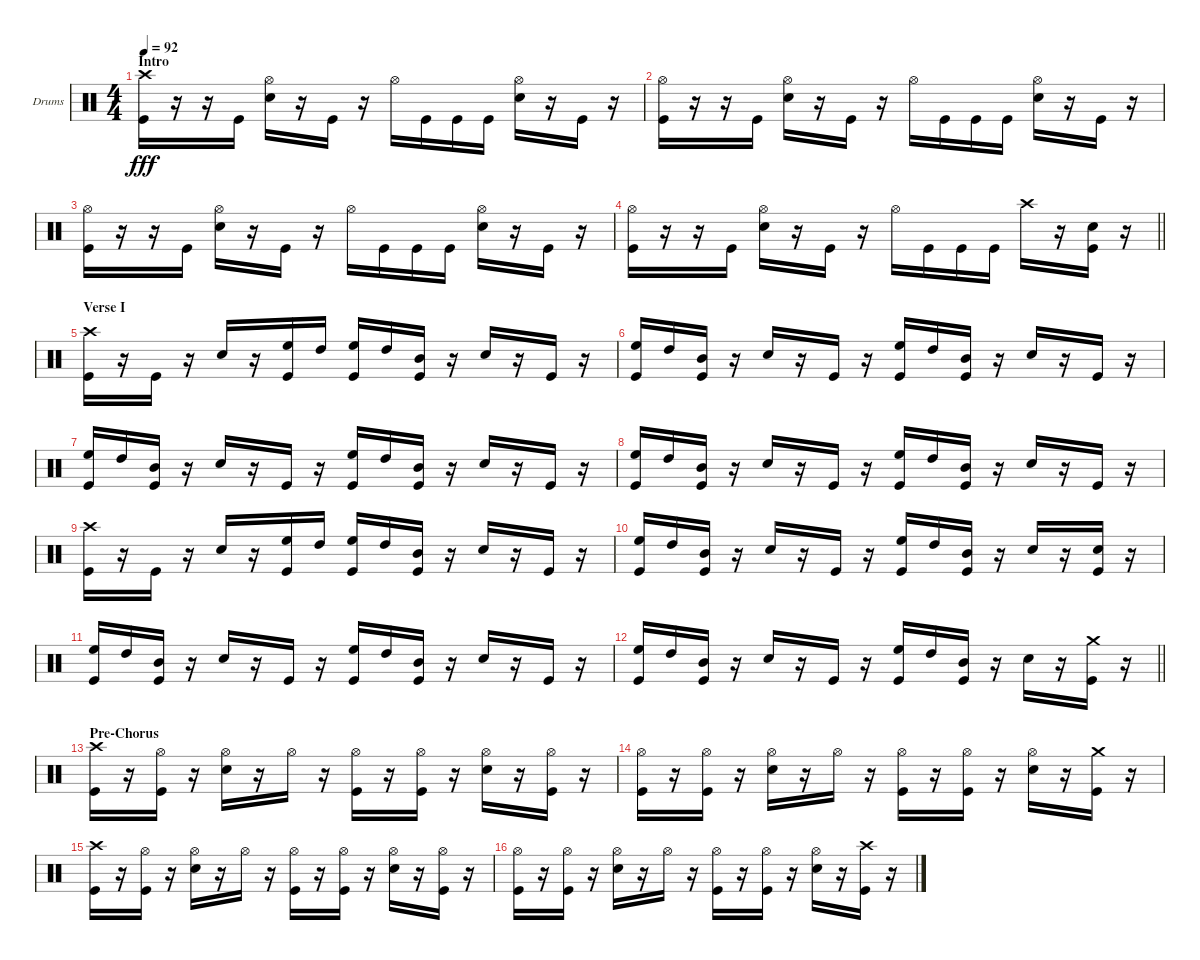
\bracketExtendMode groupsimilarinstruments
\firstSystemTrackNameOrientation horizontal
\otherSystemsTrackNameOrientation horizontal
\track ("Drums" "Drums") {instrument percussion}
\staff {score}
\articulation defaults
\ts (4 4)
\beaming (8 2 2 2 2)
\section ("" "Intro")
\tempo 92
\clef neutral
\ks c
("Crash high (hit)" "Kick (hit)").16{dy fff} r.16 r.16 "Kick (hit)".16 ("Hi-Hat (open)" "Snare (hit) 2").16 r.16 "Kick (hit)".16 r.16 "Hi-Hat (open)".16 "Kick (hit)".16 "Kick (hit)".16 "Kick (hit)".16 ("Hi-Hat (open)" "Snare (hit) 2").16 r.16 "Kick (hit)".16 r.16 |
("Hi-Hat (open)" "Kick (hit)").16 r.16 r.16 "Kick (hit)".16 ("Hi-Hat (open)" "Snare (hit) 2").16 r.16 "Kick (hit)".16 r.16 "Hi-Hat (open)".16 "Kick (hit)".16 "Kick (hit)".16 "Kick (hit)".16 ("Hi-Hat (open)" "Snare (hit) 2").16 r.16 "Kick (hit)".16 r.16 |
("Hi-Hat (open)" "Kick (hit)").16 r.16 r.16 "Kick (hit)".16 ("Hi-Hat (open)" "Snare (hit) 2").16 r.16 "Kick (hit)".16 r.16 "Hi-Hat (open)".16 "Kick (hit)".16 "Kick (hit)".16 "Kick (hit)".16 ("Hi-Hat (open)" "Snare (hit) 2").16 r.16 "Kick (hit)".16 r.16 |
\barLineRight lightlight
("Hi-Hat (open)" "Kick (hit)").16 r.16 r.16 "Kick (hit)".16 ("Hi-Hat (open)" "Snare (hit) 2").16 r.16 "Kick (hit)".16 r.16 "Hi-Hat (open)".16 "Kick (hit)".16 "Kick (hit)".16 "Kick (hit)".16 "Crash high (hit)".16 r.16 ("Snare (hit) 2" "Kick (hit)").16 r.16 |
\section ("" "Verse I")
("Crash high (hit)" "Kick (hit)").16 r.16 "Kick (hit)".16 r.16 "Snare (hit) 2".16 r.16 ("High Floor Tom (hit)" "Kick (hit)").16 "High Tom (hit)".16 ("High Floor Tom (hit)" "Kick (hit)").16 "High Tom (hit)".16 ("Mid Tom (hit)" "Kick (hit)").16 r.16 "Snare (hit) 2".16 r.16 "Kick (hit)".16 r.16 |
("High Floor Tom (hit)" "Kick (hit)").16 "High Tom (hit)".16 ("Mid Tom (hit)" "Kick (hit)").16 r.16 "Snare (hit) 2".16 r.16 "Kick (hit)".16 r.16 ("High Floor Tom (hit)" "Kick (hit)").16 "High Tom (hit)".16 ("Mid Tom (hit)" "Kick (hit)").16 r.16 "Snare (hit) 2".16 r.16 "Kick (hit)".16 r.16 |
("High Floor Tom (hit)" "Kick (hit)").16 "High Tom (hit)".16 ("Mid Tom (hit)" "Kick (hit)").16 r.16 "Snare (hit) 2".16 r.16 "Kick (hit)".16 r.16 ("High Floor Tom (hit)" "Kick (hit)").16 "High Tom (hit)".16 ("Mid Tom (hit)" "Kick (hit)").16 r.16 "Snare (hit) 2".16 r.16 "Kick (hit)".16 r.16 |
("High Floor Tom (hit)" "Kick (hit)").16 "High Tom (hit)".16 ("Mid Tom (hit)" "Kick (hit)").16 r.16 "Snare (hit) 2".16 r.16 "Kick (hit)".16 r.16 ("High Floor Tom (hit)" "Kick (hit)").16 "High Tom (hit)".16 ("Mid Tom (hit)" "Kick (hit)").16 r.16 "Snare (hit) 2".16 r.16 "Kick (hit)".16 r.16 |
("Crash high (hit)" "Kick (hit)").16 r.16 "Kick (hit)".16 r.16 "Snare (hit) 2".16 r.16 ("High Floor Tom (hit)" "Kick (hit)").16 "High Tom (hit)".16 ("High Floor Tom (hit)" "Kick (hit)").16 "High Tom (hit)".16 ("Mid Tom (hit)" "Kick (hit)").16 r.16 "Snare (hit) 2".16 r.16 "Kick (hit)".16 r.16 |
("High Floor Tom (hit)" "Kick (hit)").16 "High Tom (hit)".16 ("Mid Tom (hit)" "Kick (hit)").16 r.16 "Snare (hit) 2".16 r.16 "Kick (hit)".16 r.16 ("High Floor Tom (hit)" "Kick (hit)").16 "High Tom (hit)".16 ("Mid Tom (hit)" "Kick (hit)").16 r.16 "Snare (hit) 2".16 r.16 ("Snare (hit) 2" "Kick (hit)").16 r.16 |
("High Floor Tom (hit)" "Kick (hit)").16 "High Tom (hit)".16 ("Mid Tom (hit)" "Kick (hit)").16 r.16 "Snare (hit) 2".16 r.16 "Kick (hit)".16 r.16 ("High Floor Tom (hit)" "Kick (hit)").16 "High Tom (hit)".16 ("Mid Tom (hit)" "Kick (hit)").16 r.16 "Snare (hit) 2".16 r.16 "Kick (hit)".16 r.16 |
\barLineRight lightlight
("High Floor Tom (hit)" "Kick (hit)").16 "High Tom (hit)".16 ("Mid Tom (hit)" "Kick (hit)").16 r.16 "Snare (hit) 2".16 r.16 "Kick (hit)".16 r.16 ("High Floor Tom (hit)" "Kick (hit)").16 "High Tom (hit)".16 ("Mid Tom (hit)" "Kick (hit)").16 r.16 "Snare (hit) 2".16 r.16 ("Crash medium (hit)" "Kick (hit)").16 r.16 |
\section ("" "Pre-Chorus")
("Crash high (hit)" "Kick (hit)").16 r.16 ("Hi-Hat (open)" "Kick (hit)").16 r.16 ("Hi-Hat (open)" "Snare (hit) 2").16 r.16 "Hi-Hat (open)".16 r.16 ("Hi-Hat (open)" "Kick (hit)").16 r.16 ("Hi-Hat (open)" "Kick (hit)").16 r.16 ("Hi-Hat (open)" "Snare (hit) 2").16 r.16 ("Hi-Hat (open)" "Kick (hit)").16 r.16 |
("Hi-Hat (open)" "Kick (hit)").16 r.16 ("Hi-Hat (open)" "Kick (hit)").16 r.16 ("Hi-Hat (open)" "Snare (hit) 2").16 r.16 "Hi-Hat (open)".16 r.16 ("Hi-Hat (open)" "Kick (hit)").16 r.16 ("Hi-Hat (open)" "Kick (hit)").16 r.16 ("Hi-Hat (open)" "Snare (hit) 2").16 r.16 ("Crash medium (hit)" "Kick (hit)").16 r.16 |
("Crash high (hit)" "Kick (hit)").16 r.16 ("Hi-Hat (open)" "Kick (hit)").16 r.16 ("Hi-Hat (open)" "Snare (hit) 2").16 r.16 "Hi-Hat (open)".16 r.16 ("Hi-Hat (open)" "Kick (hit)").16 r.16 ("Hi-Hat (open)" "Kick (hit)").16 r.16 ("Hi-Hat (open)" "Snare (hit) 2").16 r.16 ("Hi-Hat (open)" "Kick (hit)").16 r.16 |
("Hi-Hat (open)" "Kick (hit)").16 r.16 ("Hi-Hat (open)" "Kick (hit)").16 r.16 ("Hi-Hat (open)" "Snare (hit) 2").16 r.16 "Hi-Hat (open)".16 r.16 ("Hi-Hat (open)" "Kick (hit)").16 r.16 ("Hi-Hat (open)" "Kick (hit)").16 r.16 ("Hi-Hat (open)" "Snare (hit) 2").16 r.16 ("Crash high (hit)" "Kick (hit)").16 r.16
